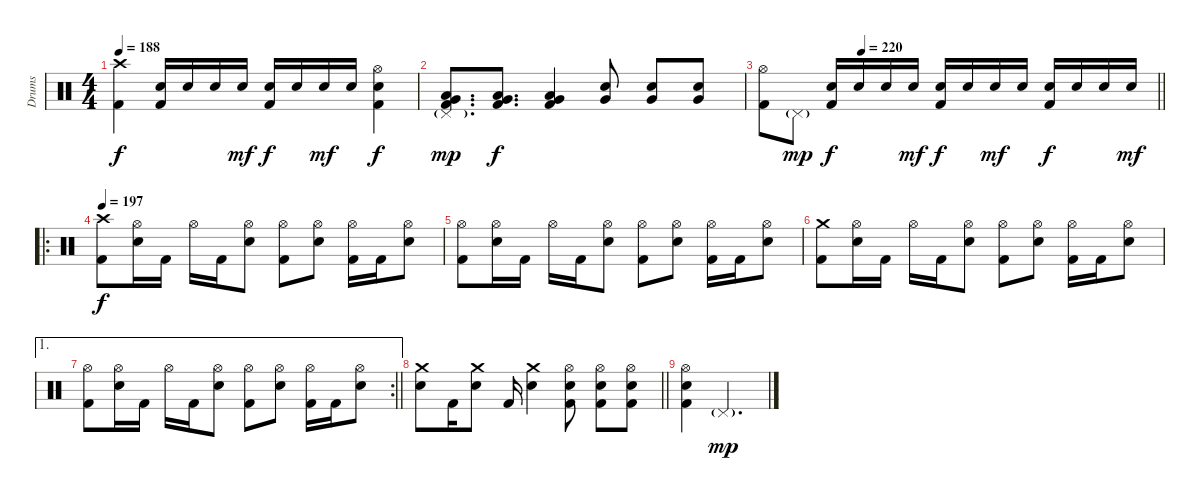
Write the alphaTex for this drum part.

\track ("Drums" "Drums") {instrument percussion}
\staff {score}
\articulation defaults
\ts (4 4)
\tempo 188
\clef neutral
\ks c
("Crash high (hit)" "Kick (hit) 2").4{dy f} ("Electric Snare (hit)" "Kick (hit) 2").16 "Electric Snare (hit)".16 "Electric Snare (hit)".16 "Electric Snare (hit)".16{dy mf} ("Electric Snare (hit)" "Kick (hit) 2").16{dy f} "Electric Snare (hit)".16 "Electric Snare (hit)".16{dy mf} "Electric Snare (hit)".16 ("Hi-Hat (open)" "Electric Snare (hit)" "Kick (hit) 2").4{dy f} |
("Pedal Hi-Hat (hit)"{g} "Very Low Tom (hit)" "Low Floor Tom (hit)" "Kick (hit) 2").8{d dy mp} ("Very Low Tom (hit)" "Low Floor Tom (hit)" "Kick (hit) 2").8{d dy f} ("Very Low Tom (hit)" "Low Floor Tom (hit)" "Kick (hit) 2").4 ("Electric Snare (hit)" "Very Low Tom (hit)").8 ("Electric Snare (hit)" "Very Low Tom (hit)").8 ("Electric Snare (hit)" "Very Low Tom (hit)").8 |
\tempo (220 0.25)
\barLineRight lightlight
("Hi-Hat (open)" "Kick (hit) 2").8 "Pedal Hi-Hat (hit)"{g}.8{dy mp} ("Electric Snare (hit)" "Kick (hit) 2").16{dy f} "Electric Snare (hit)".16 "Electric Snare (hit)".16 "Electric Snare (hit)".16{dy mf} ("Electric Snare (hit)" "Kick (hit) 2").16{dy f} "Electric Snare (hit)".16 "Electric Snare (hit)".16{dy mf} "Electric Snare (hit)".16 ("Electric Snare (hit)" "Kick (hit) 2").16{dy f} "Electric Snare (hit)".16 "Electric Snare (hit)".16 "Electric Snare (hit)".16{dy mf} |
\ro
\section ("" "")
\tempo 197
("Crash high (hit)" "Kick (hit) 2").8{dy f} ("Hi-Hat (open)" "Electric Snare (hit)").16 "Kick (hit) 2".16 "Hi-Hat (open)".16 "Kick (hit) 2".16 ("Hi-Hat (open)" "Electric Snare (hit)").8 ("Hi-Hat (open)" "Kick (hit) 2").8 ("Hi-Hat (open)" "Electric Snare (hit)").8 ("Hi-Hat (open)" "Kick (hit) 2").16 "Kick (hit) 2".16 ("Hi-Hat (open)" "Electric Snare (hit)").8 |
("Hi-Hat (open)" "Kick (hit) 2").8 ("Hi-Hat (open)" "Electric Snare (hit)").16 "Kick (hit) 2".16 "Hi-Hat (open)".16 "Kick (hit) 2".16 ("Hi-Hat (open)" "Electric Snare (hit)").8 ("Hi-Hat (open)" "Kick (hit) 2").8 ("Hi-Hat (open)" "Electric Snare (hit)").8 ("Hi-Hat (open)" "Kick (hit) 2").16 "Kick (hit) 2".16 ("Hi-Hat (open)" "Electric Snare (hit)").8 |
("Crash medium (hit)" "Kick (hit) 2").8 ("Hi-Hat (open)" "Electric Snare (hit)").16 "Kick (hit) 2".16 "Hi-Hat (open)".16 "Kick (hit) 2".16 ("Hi-Hat (open)" "Electric Snare (hit)").8 ("Hi-Hat (open)" "Kick (hit) 2").8 ("Hi-Hat (open)" "Electric Snare (hit)").8 ("Hi-Hat (open)" "Kick (hit) 2").16 "Kick (hit) 2".16 ("Hi-Hat (open)" "Electric Snare (hit)").8 |
\ae 1
\rc 2
\barLineRight lightlight
("Hi-Hat (open)" "Kick (hit) 2").8 ("Hi-Hat (open)" "Electric Snare (hit)").16 "Kick (hit) 2".16 "Hi-Hat (open)".16 "Kick (hit) 2".16 ("Hi-Hat (open)" "Electric Snare (hit)").8 ("Hi-Hat (open)" "Kick (hit) 2").8 ("Hi-Hat (open)" "Electric Snare (hit)").8 ("Hi-Hat (open)" "Kick (hit) 2").16 "Kick (hit) 2".16 ("Hi-Hat (open)" "Electric Snare (hit)").8 |
\barLineRight lightlight
("Crash medium (hit)" "Electric Snare (hit)").8 "Kick (hit) 2".16 ("Crash medium (hit)" "Electric Snare (hit)").8 "Kick (hit) 2".16 ("Crash medium (hit)" "Electric Snare (hit)").4 ("Hi-Hat (open)" "Electric Snare (hit)" "Kick (hit) 2").8 ("Hi-Hat (open)" "Electric Snare (hit)" "Kick (hit) 2").8 ("Hi-Hat (open)" "Electric Snare (hit)" "Kick (hit) 2").8 |
("Hi-Hat (open)" "Electric Snare (hit)" "Kick (hit) 2").4 "Pedal Hi-Hat (hit)"{g}.2{d dy mp}
